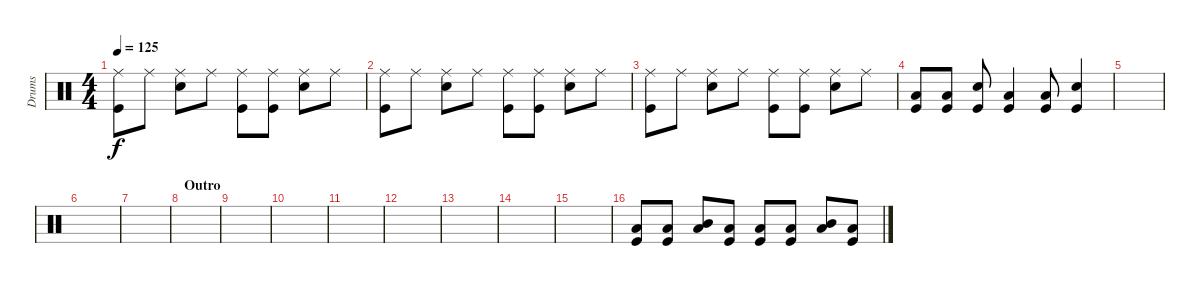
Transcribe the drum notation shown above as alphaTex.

\track ("Drums" "Drums") {instrument percussion}
\staff {score}
\articulation defaults
\ts (4 4)
\tempo 125
\clef neutral
\ks c
("Ride (middle)" "Kick (hit)").8{dy f} "Ride (middle)".8 ("Ride (middle)" "Electric Snare (hit)").8 "Ride (middle)".8 ("Ride (middle)" "Kick (hit)").8 ("Ride (middle)" "Kick (hit)").8 ("Ride (middle)" "Electric Snare (hit)").8 "Ride (middle)".8 |
("Ride (middle)" "Kick (hit)").8 "Ride (middle)".8 ("Ride (middle)" "Electric Snare (hit)").8 "Ride (middle)".8 ("Ride (middle)" "Kick (hit)").8 ("Ride (middle)" "Kick (hit)").8 ("Ride (middle)" "Electric Snare (hit)").8 "Ride (middle)".8 |
("Ride (middle)" "Kick (hit)").8 "Ride (middle)".8 ("Ride (middle)" "Electric Snare (hit)").8 "Ride (middle)".8 ("Ride (middle)" "Kick (hit)").8 ("Ride (middle)" "Kick (hit)").8 ("Ride (middle)" "Electric Snare (hit)").8 "Ride (middle)".8 |
("Low Floor Tom (hit)" "Kick (hit)").8 ("Low Floor Tom (hit)" "Kick (hit)").8 ("Electric Snare (hit)" "Kick (hit)").8 ("Low Floor Tom (hit)" "Kick (hit)").4 ("Low Floor Tom (hit)" "Kick (hit)").8 ("Electric Snare (hit)" "Kick (hit)").4 |
|
|
|
\section ("" "Outro")
|
|
|
|
|
|
|
|
("Low Floor Tom (hit)" "Kick (hit)").8 ("Low Floor Tom (hit)" "Kick (hit)").8 ("Low Floor Tom (hit)" "Mid Tom (hit)").8 ("Low Floor Tom (hit)" "Kick (hit)").8 ("Low Floor Tom (hit)" "Kick (hit)").8 ("Low Floor Tom (hit)" "Kick (hit)").8 ("Low Floor Tom (hit)" "Mid Tom (hit)").8 ("Low Floor Tom (hit)" "Kick (hit)").8
